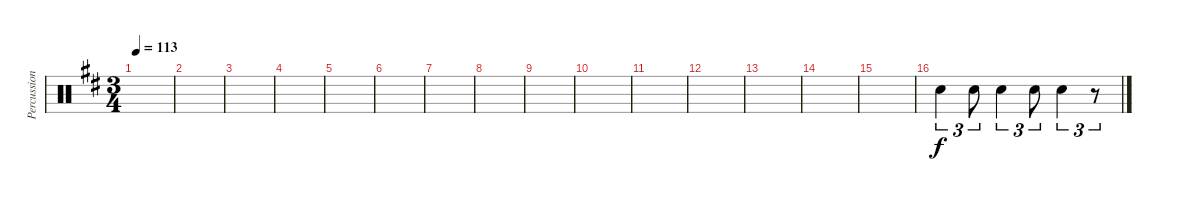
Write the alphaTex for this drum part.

\track ("Percussion" "Percussion") {instrument percussion}
\staff {score}
\articulation defaults
\ts (3 4)
\tempo 113
\clef neutral
\ks d
|
|
|
|
|
|
|
|
|
|
|
|
|
|
|
"Hand Clap (hit)".4{tu (3 2)} "Hand Clap (hit)".8{tu (3 2)} "Hand Clap (hit)".4{tu (3 2)} "Hand Clap (hit)".8{tu (3 2)} "Hand Clap (hit)".4{tu (3 2)} r.8{tu (3 2)}
